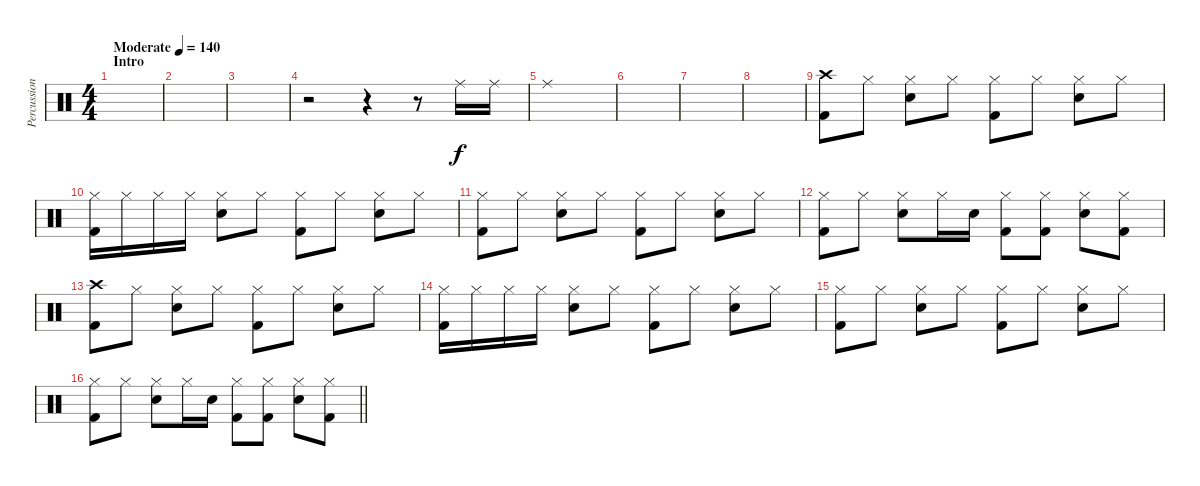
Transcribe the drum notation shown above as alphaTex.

\track ("Percussion" "Percussion") {instrument percussion}
\staff {score}
\articulation defaults
\ts (4 4)
\section ("" "Intro")
\tempo (140 "Moderate")
\clef neutral
\ks c
|
|
|
r.2 r.4 r.8 "Ride (middle)".16 "Ride (middle)".16 |
"Ride (middle)".1 |
|
|
|
("Crash high (hit)" "Kick (hit) 2").8 "Hi-Hat (closed)".8 ("Hi-Hat (closed)" "Snare (hit) 2").8 "Hi-Hat (closed)".8 ("Hi-Hat (closed)" "Kick (hit) 2").8 "Hi-Hat (closed)".8 ("Hi-Hat (closed)" "Snare (hit) 2").8 "Hi-Hat (closed)".8 |
("Hi-Hat (closed)" "Kick (hit) 2").16 "Hi-Hat (closed)".16 "Hi-Hat (closed)".16 "Hi-Hat (closed)".16 ("Hi-Hat (closed)" "Snare (hit) 2").8 "Hi-Hat (closed)".8 ("Hi-Hat (closed)" "Kick (hit) 2").8 "Hi-Hat (closed)".8 ("Hi-Hat (closed)" "Snare (hit) 2").8 "Hi-Hat (closed)".8 |
("Hi-Hat (closed)" "Kick (hit) 2").8 "Hi-Hat (closed)".8 ("Hi-Hat (closed)" "Snare (hit) 2").8 "Hi-Hat (closed)".8 ("Hi-Hat (closed)" "Kick (hit) 2").8 "Hi-Hat (closed)".8 ("Hi-Hat (closed)" "Snare (hit) 2").8 "Hi-Hat (closed)".8 |
("Hi-Hat (closed)" "Kick (hit) 2").8 "Hi-Hat (closed)".8 ("Hi-Hat (closed)" "Snare (hit) 2").8 "Hi-Hat (closed)".16 "Snare (hit) 2".16 ("Hi-Hat (closed)" "Kick (hit) 2").8 ("Hi-Hat (closed)" "Kick (hit) 2").8 ("Hi-Hat (closed)" "Snare (hit) 2").8 ("Hi-Hat (closed)" "Kick (hit) 2").8 |
("Crash high (hit)" "Kick (hit) 2").8 "Hi-Hat (closed)".8 ("Hi-Hat (closed)" "Snare (hit) 2").8 "Hi-Hat (closed)".8 ("Hi-Hat (closed)" "Kick (hit) 2").8 "Hi-Hat (closed)".8 ("Hi-Hat (closed)" "Snare (hit) 2").8 "Hi-Hat (closed)".8 |
("Hi-Hat (closed)" "Kick (hit) 2").16 "Hi-Hat (closed)".16 "Hi-Hat (closed)".16 "Hi-Hat (closed)".16 ("Hi-Hat (closed)" "Snare (hit) 2").8 "Hi-Hat (closed)".8 ("Hi-Hat (closed)" "Kick (hit) 2").8 "Hi-Hat (closed)".8 ("Hi-Hat (closed)" "Snare (hit) 2").8 "Hi-Hat (closed)".8 |
("Hi-Hat (closed)" "Kick (hit) 2").8 "Hi-Hat (closed)".8 ("Hi-Hat (closed)" "Snare (hit) 2").8 "Hi-Hat (closed)".8 ("Hi-Hat (closed)" "Kick (hit) 2").8 "Hi-Hat (closed)".8 ("Hi-Hat (closed)" "Snare (hit) 2").8 "Hi-Hat (closed)".8 |
\barLineRight lightlight
("Hi-Hat (closed)" "Kick (hit) 2").8 "Hi-Hat (closed)".8 ("Hi-Hat (closed)" "Snare (hit) 2").8 "Hi-Hat (closed)".16 "Snare (hit) 2".16 ("Hi-Hat (closed)" "Kick (hit) 2").8 ("Hi-Hat (closed)" "Kick (hit) 2").8 ("Hi-Hat (closed)" "Snare (hit) 2").8 ("Hi-Hat (closed)" "Kick (hit) 2").8
